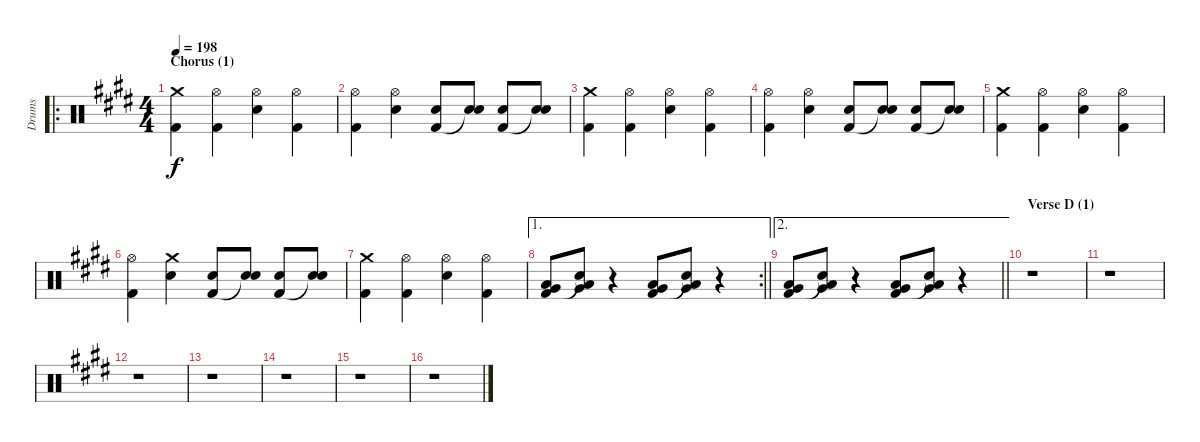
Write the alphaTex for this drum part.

\track ("Drums" "Drums") {instrument percussion}
\staff {score}
\articulation defaults
\ro
\ts (4 4)
\section ("" "Chorus (1)")
\tempo 198
\clef neutral
\ks c#minor
("Crash medium (hit)" "Kick (hit) 2").4{dy f} ("Hi-Hat (open)" "Kick (hit) 2").4 ("Hi-Hat (open)" "Electric Snare (hit)").4 ("Hi-Hat (open)" "Kick (hit) 2").4 |
("Hi-Hat (open)" "Kick (hit) 2").4 ("Hi-Hat (open)" "Electric Snare (hit)").4 ("Electric Snare (hit)" "Kick (hit) 2").8 ("Electric Snare (hit)" "Snare (hit)"{t}).8 ("Electric Snare (hit)" "Kick (hit) 2").8 ("Electric Snare (hit)" "Snare (hit)"{t}).8 |
("Crash medium (hit)" "Kick (hit) 2").4 ("Hi-Hat (open)" "Kick (hit) 2").4 ("Hi-Hat (open)" "Electric Snare (hit)").4 ("Hi-Hat (open)" "Kick (hit) 2").4 |
("Hi-Hat (open)" "Kick (hit) 2").4 ("Hi-Hat (open)" "Electric Snare (hit)").4 ("Electric Snare (hit)" "Kick (hit) 2").8 ("Electric Snare (hit)" "Snare (hit)"{t}).8 ("Electric Snare (hit)" "Kick (hit) 2").8 ("Electric Snare (hit)" "Snare (hit)"{t}).8 |
("Crash medium (hit)" "Kick (hit) 2").4 ("Hi-Hat (open)" "Kick (hit) 2").4 ("Hi-Hat (open)" "Electric Snare (hit)").4 ("Hi-Hat (open)" "Kick (hit) 2").4 |
("Hi-Hat (open)" "Kick (hit) 2").4 ("Crash medium (hit)" "Electric Snare (hit)").4 ("Electric Snare (hit)" "Kick (hit) 2").8 ("Electric Snare (hit)" "Snare (hit)"{t}).8 ("Electric Snare (hit)" "Kick (hit) 2").8 ("Electric Snare (hit)" "Snare (hit)"{t}).8 |
("Crash medium (hit)" "Kick (hit) 2").4 ("Hi-Hat (open)" "Kick (hit) 2").4 ("Hi-Hat (open)" "Electric Snare (hit)").4 ("Hi-Hat (open)" "Kick (hit) 2").4 |
\ae 1
\rc 2
\barLineRight lightlight
("Very Low Tom (hit)" "Low Floor Tom (hit)" "Kick (hit) 2").8 ("Very Low Tom (hit)" "Low Floor Tom (hit)" "Snare (hit)"{t}).8 r.4 ("Very Low Tom (hit)" "Low Floor Tom (hit)" "Kick (hit) 2").8 ("Very Low Tom (hit)" "Low Floor Tom (hit)" "Snare (hit)"{t}).8 r.4 |
\ae 2
\barLineRight lightlight
("Very Low Tom (hit)" "Low Floor Tom (hit)" "Kick (hit) 2").8 ("Very Low Tom (hit)" "Low Floor Tom (hit)" "Snare (hit)"{t}).8 r.4 ("Very Low Tom (hit)" "Low Floor Tom (hit)" "Kick (hit) 2").8 ("Very Low Tom (hit)" "Low Floor Tom (hit)" "Snare (hit)"{t}).8 r.4 |
\section ("" "Verse D (1)")
r.1 |
r.1 |
r.1 |
r.1 |
r.1 |
r.1 |
r.1
